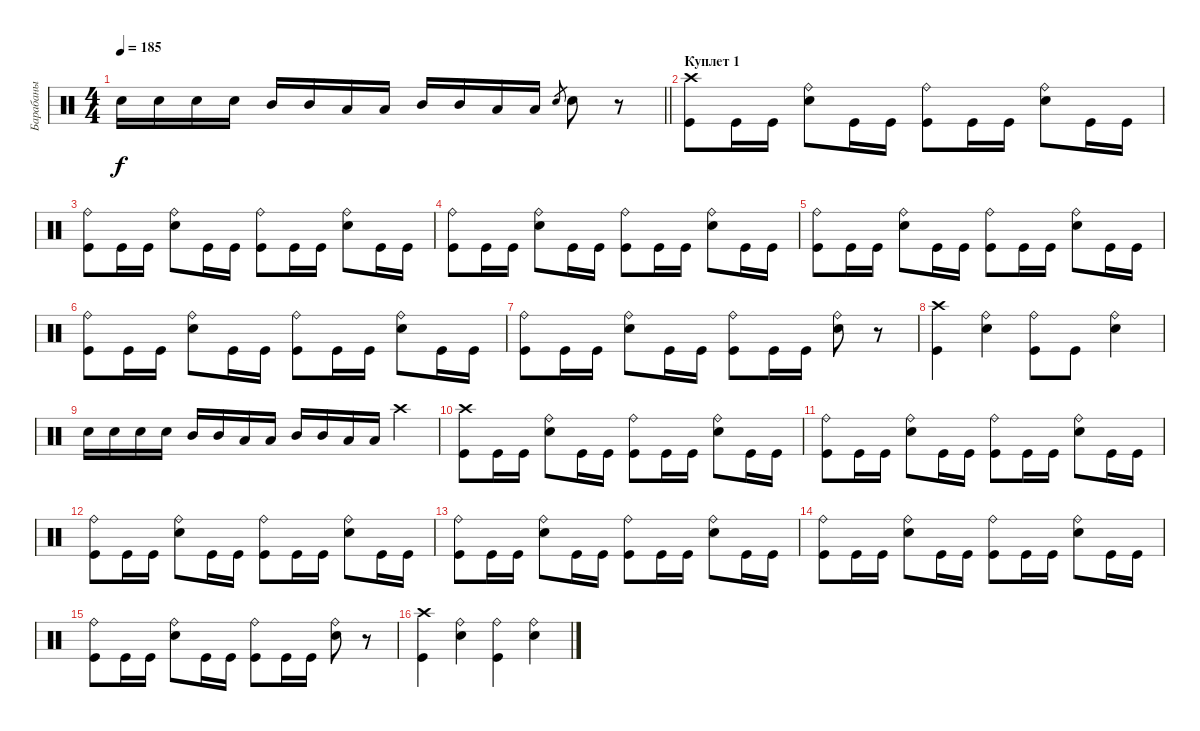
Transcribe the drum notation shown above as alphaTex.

\track ("Барабаны" "Барабаны") {instrument percussion}
\staff {score}
\articulation defaults
\ts (4 4)
\tempo 185
\clef neutral
\barLineRight lightlight
\ks c "Snare (hit) 2".16{dy f} "Snare (hit) 2".16 "Snare (hit) 2".16 "Snare (hit) 2".16 "Mid Tom (hit)".16 "Mid Tom (hit)".16 "Low Tom (hit)".16 "Low Tom (hit)".16 "Mid Tom (hit)".16 "Mid Tom (hit)".16 "Low Tom (hit)".16 "Low Tom (hit)".16 "Snare (hit) 2".8{gr} "Snare (hit) 2".8
r.8 |
\section ("" "Куплет 1")
("Kick (hit)" "Crash high (hit)").8 "Kick (hit)".16 "Kick (hit)".16 ("Snare (hit) 2" "Ride (bell)").8 "Kick (hit)".16 "Kick (hit)".16 ("Kick (hit)" "Ride (bell)").8 "Kick (hit)".16 "Kick (hit)".16 ("Snare (hit) 2" "Ride (bell)").8 "Kick (hit)".16 "Kick (hit)".16 |
("Kick (hit)" "Ride (bell)").8 "Kick (hit)".16 "Kick (hit)".16 ("Snare (hit) 2" "Ride (bell)").8 "Kick (hit)".16 "Kick (hit)".16 ("Kick (hit)" "Ride (bell)").8 "Kick (hit)".16 "Kick (hit)".16 ("Snare (hit) 2" "Ride (bell)").8 "Kick (hit)".16 "Kick (hit)".16 |
("Kick (hit)" "Ride (bell)").8 "Kick (hit)".16 "Kick (hit)".16 ("Snare (hit) 2" "Ride (bell)").8 "Kick (hit)".16 "Kick (hit)".16 ("Kick (hit)" "Ride (bell)").8 "Kick (hit)".16 "Kick (hit)".16 ("Snare (hit) 2" "Ride (bell)").8 "Kick (hit)".16 "Kick (hit)".16 |
("Kick (hit)" "Ride (bell)").8 "Kick (hit)".16 "Kick (hit)".16 ("Snare (hit) 2" "Ride (bell)").8 "Kick (hit)".16 "Kick (hit)".16 ("Kick (hit)" "Ride (bell)").8 "Kick (hit)".16 "Kick (hit)".16 ("Snare (hit) 2" "Ride (bell)").8 "Kick (hit)".16 "Kick (hit)".16 |
("Kick (hit)" "Ride (bell)").8 "Kick (hit)".16 "Kick (hit)".16 ("Snare (hit) 2" "Ride (bell)").8 "Kick (hit)".16 "Kick (hit)".16 ("Kick (hit)" "Ride (bell)").8 "Kick (hit)".16 "Kick (hit)".16 ("Snare (hit) 2" "Ride (bell)").8 "Kick (hit)".16 "Kick (hit)".16 |
("Kick (hit)" "Ride (bell)").8 "Kick (hit)".16 "Kick (hit)".16 ("Snare (hit) 2" "Ride (bell)").8 "Kick (hit)".16 "Kick (hit)".16 ("Kick (hit)" "Ride (bell)").8 "Kick (hit)".16 "Kick (hit)".16 ("Snare (hit) 2" "Ride (bell)").8 r.8 |
("Kick (hit)" "Crash high (hit)").4 ("Snare (hit) 2" "Ride (bell)").4 ("Kick (hit)" "Ride (bell)").8 "Kick (hit)".8 ("Snare (hit) 2" "Ride (bell)").4 |
"Snare (hit) 2".16 "Snare (hit) 2".16 "Snare (hit) 2".16 "Snare (hit) 2".16 "Mid Tom (hit)".16 "Mid Tom (hit)".16 "Low Tom (hit)".16 "Low Tom (hit)".16 "Mid Tom (hit)".16 "Mid Tom (hit)".16 "Low Tom (hit)".16 "Low Tom (hit)".16 "Crash high (hit)".4 |
("Kick (hit)" "Crash high (hit)").8 "Kick (hit)".16 "Kick (hit)".16 ("Snare (hit) 2" "Ride (bell)").8 "Kick (hit)".16 "Kick (hit)".16 ("Kick (hit)" "Ride (bell)").8 "Kick (hit)".16 "Kick (hit)".16 ("Snare (hit) 2" "Ride (bell)").8 "Kick (hit)".16 "Kick (hit)".16 |
("Kick (hit)" "Ride (bell)").8 "Kick (hit)".16 "Kick (hit)".16 ("Snare (hit) 2" "Ride (bell)").8 "Kick (hit)".16 "Kick (hit)".16 ("Kick (hit)" "Ride (bell)").8 "Kick (hit)".16 "Kick (hit)".16 ("Snare (hit) 2" "Ride (bell)").8 "Kick (hit)".16 "Kick (hit)".16 |
("Kick (hit)" "Ride (bell)").8 "Kick (hit)".16 "Kick (hit)".16 ("Snare (hit) 2" "Ride (bell)").8 "Kick (hit)".16 "Kick (hit)".16 ("Kick (hit)" "Ride (bell)").8 "Kick (hit)".16 "Kick (hit)".16 ("Snare (hit) 2" "Ride (bell)").8 "Kick (hit)".16 "Kick (hit)".16 |
("Kick (hit)" "Ride (bell)").8 "Kick (hit)".16 "Kick (hit)".16 ("Snare (hit) 2" "Ride (bell)").8 "Kick (hit)".16 "Kick (hit)".16 ("Kick (hit)" "Ride (bell)").8 "Kick (hit)".16 "Kick (hit)".16 ("Snare (hit) 2" "Ride (bell)").8 "Kick (hit)".16 "Kick (hit)".16 |
("Kick (hit)" "Ride (bell)").8 "Kick (hit)".16 "Kick (hit)".16 ("Snare (hit) 2" "Ride (bell)").8 "Kick (hit)".16 "Kick (hit)".16 ("Kick (hit)" "Ride (bell)").8 "Kick (hit)".16 "Kick (hit)".16 ("Snare (hit) 2" "Ride (bell)").8 "Kick (hit)".16 "Kick (hit)".16 |
("Kick (hit)" "Ride (bell)").8 "Kick (hit)".16 "Kick (hit)".16 ("Snare (hit) 2" "Ride (bell)").8 "Kick (hit)".16 "Kick (hit)".16 ("Kick (hit)" "Ride (bell)").8 "Kick (hit)".16 "Kick (hit)".16 ("Snare (hit) 2" "Ride (bell)").8 r.8 |
("Kick (hit)" "Crash high (hit)").4 ("Snare (hit) 2" "Ride (bell)").4 ("Kick (hit)" "Ride (bell)").4 ("Snare (hit) 2" "Ride (bell)").4
